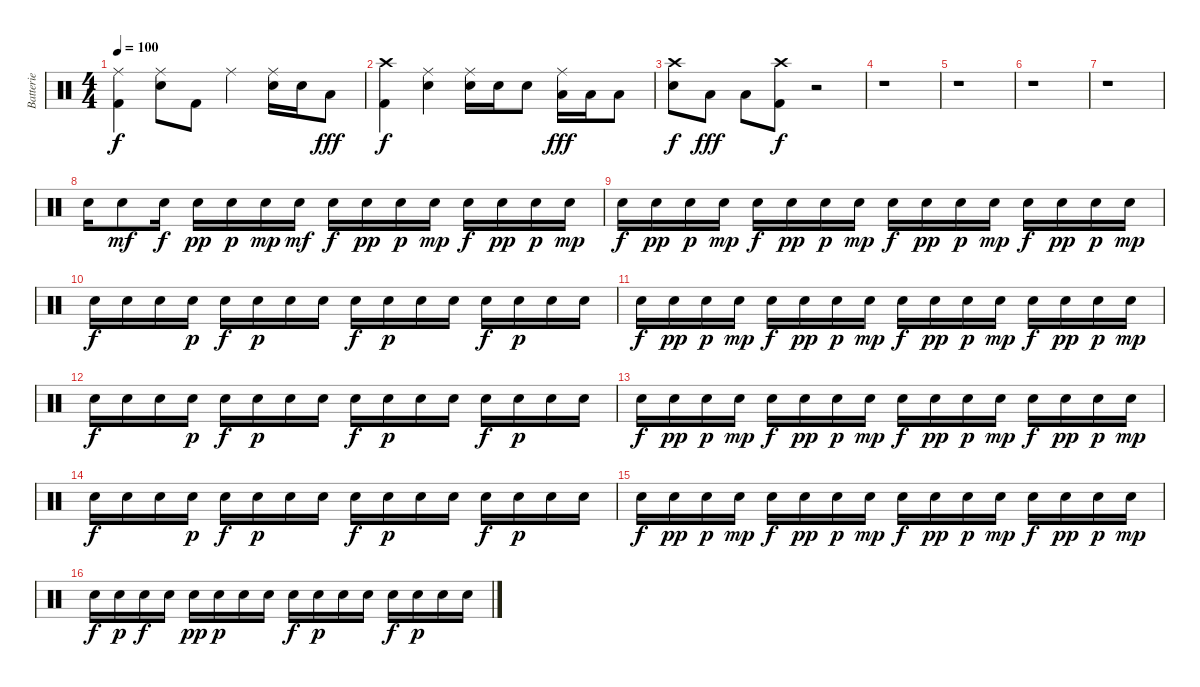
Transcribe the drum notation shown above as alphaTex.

\track ("Batterie" "Batterie") {instrument percussion}
\staff {score}
\articulation defaults
\ts (4 4)
\tempo 100
\clef neutral
\ks c
("Ride (middle)" "Kick (hit) 2").4{dy f} ("Ride (middle)" "Electric Snare (hit)").8 "Kick (hit) 2".8 "Ride (middle)".4 ("Ride (middle)" "Electric Snare (hit)").16 "Electric Snare (hit)".16 "Low Tom (hit)".8{dy fff} |
("Crash high (hit)" "Kick (hit) 2").4{dy f} ("Ride (middle)" "Electric Snare (hit)").4 ("Ride (middle)" "Electric Snare (hit)").16 "Electric Snare (hit)".16 "Electric Snare (hit)".8 ("Ride (middle)" "Low Tom (hit)").16{dy fff} "Low Tom (hit)".16 "Low Tom (hit)".8 |
("Crash high (hit)" "Electric Snare (hit)").8{dy f} "Low Tom (hit)".8{dy fff} "Low Tom (hit)".8 ("Crash high (hit)" "Kick (hit) 2").8{dy f} r.2 |
r.1 |
r.1 |
r.1 |
r.1 |
"Electric Snare (hit)".16 "Electric Snare (hit)".8{dy mf} "Electric Snare (hit)".16{dy f} "Snare (hit) 2".16{dy pp} "Snare (hit) 2".16{dy p} "Snare (hit) 2".16{dy mp} "Snare (hit) 2".16{dy mf} "Electric Snare (hit)".16{dy f} "Snare (hit) 2".16{dy pp} "Snare (hit) 2".16{dy p} "Snare (hit) 2".16{dy mp} "Electric Snare (hit)".16{dy f} "Snare (hit) 2".16{dy pp} "Snare (hit) 2".16{dy p} "Snare (hit) 2".16{dy mp} |
"Electric Snare (hit)".16{dy f} "Snare (hit) 2".16{dy pp} "Snare (hit) 2".16{dy p} "Snare (hit) 2".16{dy mp} "Electric Snare (hit)".16{dy f} "Snare (hit) 2".16{dy pp} "Snare (hit) 2".16{dy p} "Snare (hit) 2".16{dy mp} "Electric Snare (hit)".16{dy f} "Snare (hit) 2".16{dy pp} "Snare (hit) 2".16{dy p} "Snare (hit) 2".16{dy mp} "Electric Snare (hit)".16{dy f} "Snare (hit) 2".16{dy pp} "Snare (hit) 2".16{dy p} "Snare (hit) 2".16{dy mp} |
"Electric Snare (hit)".16{dy f} "Electric Snare (hit)".16 "Electric Snare (hit)".16 "Snare (hit) 2".16{dy p} "Electric Snare (hit)".16{dy f} "Snare (hit) 2".16{dy p} "Snare (hit) 2".16 "Snare (hit) 2".16 "Electric Snare (hit)".16{dy f} "Snare (hit) 2".16{dy p} "Snare (hit) 2".16 "Snare (hit) 2".16 "Electric Snare (hit)".16{dy f} "Snare (hit) 2".16{dy p} "Snare (hit) 2".16 "Snare (hit) 2".16 |
"Electric Snare (hit)".16{dy f} "Snare (hit) 2".16{dy pp} "Snare (hit) 2".16{dy p} "Snare (hit) 2".16{dy mp} "Electric Snare (hit)".16{dy f} "Snare (hit) 2".16{dy pp} "Snare (hit) 2".16{dy p} "Snare (hit) 2".16{dy mp} "Electric Snare (hit)".16{dy f} "Snare (hit) 2".16{dy pp} "Snare (hit) 2".16{dy p} "Snare (hit) 2".16{dy mp} "Electric Snare (hit)".16{dy f} "Snare (hit) 2".16{dy pp} "Snare (hit) 2".16{dy p} "Snare (hit) 2".16{dy mp} |
"Electric Snare (hit)".16{dy f} "Electric Snare (hit)".16 "Electric Snare (hit)".16 "Snare (hit) 2".16{dy p} "Electric Snare (hit)".16{dy f} "Snare (hit) 2".16{dy p} "Snare (hit) 2".16 "Snare (hit) 2".16 "Electric Snare (hit)".16{dy f} "Snare (hit) 2".16{dy p} "Snare (hit) 2".16 "Snare (hit) 2".16 "Electric Snare (hit)".16{dy f} "Snare (hit) 2".16{dy p} "Snare (hit) 2".16 "Snare (hit) 2".16 |
"Electric Snare (hit)".16{dy f} "Snare (hit) 2".16{dy pp} "Snare (hit) 2".16{dy p} "Snare (hit) 2".16{dy mp} "Electric Snare (hit)".16{dy f} "Snare (hit) 2".16{dy pp} "Snare (hit) 2".16{dy p} "Snare (hit) 2".16{dy mp} "Electric Snare (hit)".16{dy f} "Snare (hit) 2".16{dy pp} "Snare (hit) 2".16{dy p} "Snare (hit) 2".16{dy mp} "Electric Snare (hit)".16{dy f} "Snare (hit) 2".16{dy pp} "Snare (hit) 2".16{dy p} "Snare (hit) 2".16{dy mp} |
"Electric Snare (hit)".16{dy f} "Electric Snare (hit)".16 "Electric Snare (hit)".16 "Snare (hit) 2".16{dy p} "Electric Snare (hit)".16{dy f} "Snare (hit) 2".16{dy p} "Snare (hit) 2".16 "Snare (hit) 2".16 "Electric Snare (hit)".16{dy f} "Snare (hit) 2".16{dy p} "Snare (hit) 2".16 "Snare (hit) 2".16 "Electric Snare (hit)".16{dy f} "Snare (hit) 2".16{dy p} "Snare (hit) 2".16 "Snare (hit) 2".16 |
"Electric Snare (hit)".16{dy f} "Snare (hit) 2".16{dy pp} "Snare (hit) 2".16{dy p} "Snare (hit) 2".16{dy mp} "Electric Snare (hit)".16{dy f} "Snare (hit) 2".16{dy pp} "Snare (hit) 2".16{dy p} "Snare (hit) 2".16{dy mp} "Electric Snare (hit)".16{dy f} "Snare (hit) 2".16{dy pp} "Snare (hit) 2".16{dy p} "Snare (hit) 2".16{dy mp} "Electric Snare (hit)".16{dy f} "Snare (hit) 2".16{dy pp} "Snare (hit) 2".16{dy p} "Snare (hit) 2".16{dy mp} |
"Electric Snare (hit)".16{dy f} "Snare (hit) 2".16{dy p} "Electric Snare (hit)".16{dy f} "Electric Snare (hit)".16 "Snare (hit) 2".16{dy pp} "Snare (hit) 2".16{dy p} "Snare (hit) 2".16 "Snare (hit) 2".16 "Electric Snare (hit)".16{dy f} "Snare (hit) 2".16{dy p} "Snare (hit) 2".16 "Snare (hit) 2".16 "Electric Snare (hit)".16{dy f} "Snare (hit) 2".16{dy p} "Snare (hit) 2".16 "Snare (hit) 2".16
